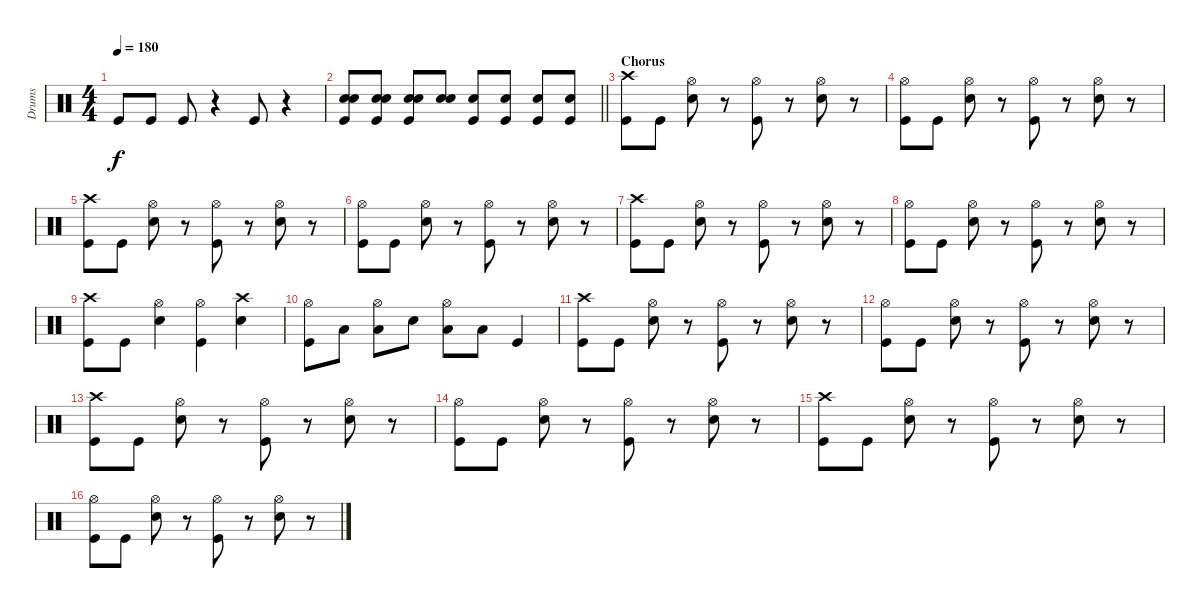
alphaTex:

\track ("Drums" "Drums") {instrument percussion}
\staff {score}
\articulation defaults
\ts (4 4)
\tempo 180
\clef neutral
\ks c "Kick (hit)".8{dy f} "Kick (hit)".8 "Kick (hit)".8
r.4 "Kick (hit)".8 r.4 |
\barLineRight lightlight
("Electric Snare (hit)" "Snare (hit) 2" "Kick (hit)").8 ("Electric Snare (hit)" "Snare (hit) 2" "Kick (hit)").8 ("Electric Snare (hit)" "Snare (hit) 2" "Kick (hit)").8 ("Electric Snare (hit)" "Snare (hit) 2").8 ("Snare (hit) 2" "Kick (hit)").8 ("Snare (hit) 2" "Kick (hit)").8 ("Snare (hit) 2" "Kick (hit)").8 ("Snare (hit) 2" "Kick (hit)").8 |
\section ("" "Chorus")
("Crash high (hit)" "Kick (hit)").8 "Kick (hit)".8 ("Hi-Hat (open)" "Snare (hit) 2").8 r.8 ("Hi-Hat (open)" "Kick (hit)").8 r.8 ("Hi-Hat (open)" "Snare (hit) 2").8 r.8 |
("Hi-Hat (open)" "Kick (hit)").8 "Kick (hit)".8 ("Hi-Hat (open)" "Snare (hit) 2").8 r.8 ("Hi-Hat (open)" "Kick (hit)").8 r.8 ("Hi-Hat (open)" "Snare (hit) 2").8 r.8 |
("Crash high (hit)" "Kick (hit)").8 "Kick (hit)".8 ("Hi-Hat (open)" "Snare (hit) 2").8 r.8 ("Hi-Hat (open)" "Kick (hit)").8 r.8 ("Hi-Hat (open)" "Snare (hit) 2").8 r.8 |
("Hi-Hat (open)" "Kick (hit)").8 "Kick (hit)".8 ("Hi-Hat (open)" "Snare (hit) 2").8 r.8 ("Hi-Hat (open)" "Kick (hit)").8 r.8 ("Hi-Hat (open)" "Snare (hit) 2").8 r.8 |
("Crash high (hit)" "Kick (hit)").8 "Kick (hit)".8 ("Hi-Hat (open)" "Snare (hit) 2").8 r.8 ("Hi-Hat (open)" "Kick (hit)").8 r.8 ("Hi-Hat (open)" "Snare (hit) 2").8 r.8 |
("Hi-Hat (open)" "Kick (hit)").8 "Kick (hit)".8 ("Hi-Hat (open)" "Snare (hit) 2").8 r.8 ("Hi-Hat (open)" "Kick (hit)").8 r.8 ("Hi-Hat (open)" "Snare (hit) 2").8 r.8 |
("Crash high (hit)" "Kick (hit)").8 "Kick (hit)".8 ("Hi-Hat (open)" "Snare (hit) 2").4 ("Hi-Hat (open)" "Kick (hit)").4 ("Crash high (hit)" "Snare (hit) 2").4 |
("Hi-Hat (open)" "Kick (hit)").8 "Low Tom (hit)".8 ("Hi-Hat (open)" "Low Tom (hit)").8 "Snare (hit) 2".8 ("Hi-Hat (open)" "Low Tom (hit)").8 "Low Tom (hit)".8 "Kick (hit)".4 |
("Crash high (hit)" "Kick (hit)").8 "Kick (hit)".8 ("Hi-Hat (open)" "Snare (hit) 2").8 r.8 ("Hi-Hat (open)" "Kick (hit)").8 r.8 ("Hi-Hat (open)" "Snare (hit) 2").8 r.8 |
("Hi-Hat (open)" "Kick (hit)").8 "Kick (hit)".8 ("Hi-Hat (open)" "Snare (hit) 2").8 r.8 ("Hi-Hat (open)" "Kick (hit)").8 r.8 ("Hi-Hat (open)" "Snare (hit) 2").8 r.8 |
("Crash high (hit)" "Kick (hit)").8 "Kick (hit)".8 ("Hi-Hat (open)" "Snare (hit) 2").8 r.8 ("Hi-Hat (open)" "Kick (hit)").8 r.8 ("Hi-Hat (open)" "Snare (hit) 2").8 r.8 |
("Hi-Hat (open)" "Kick (hit)").8 "Kick (hit)".8 ("Hi-Hat (open)" "Snare (hit) 2").8 r.8 ("Hi-Hat (open)" "Kick (hit)").8 r.8 ("Hi-Hat (open)" "Snare (hit) 2").8 r.8 |
("Crash high (hit)" "Kick (hit)").8 "Kick (hit)".8 ("Hi-Hat (open)" "Snare (hit) 2").8 r.8 ("Hi-Hat (open)" "Kick (hit)").8 r.8 ("Hi-Hat (open)" "Snare (hit) 2").8 r.8 |
("Hi-Hat (open)" "Kick (hit)").8 "Kick (hit)".8 ("Hi-Hat (open)" "Snare (hit) 2").8 r.8 ("Hi-Hat (open)" "Kick (hit)").8 r.8 ("Hi-Hat (open)" "Snare (hit) 2").8 r.8
